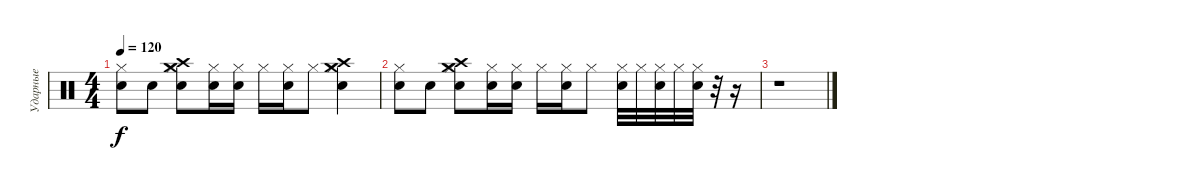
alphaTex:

\track ("Ударные" "Ударные") {instrument percussion}
\staff {score}
\articulation defaults
\ts (4 4)
\tempo 120
\clef neutral
\ks c
("Hi-Hat (closed)" "Electric Snare (hit)").8{dy f} "Electric Snare (hit)".8 ("Crash high (hit)" "Crash medium (hit)" "Electric Snare (hit)" "Hi-Hat (closed)").8 ("Hi-Hat (closed)" "Electric Snare (hit)").16 ("Hi-Hat (closed)" "Electric Snare (hit)").16 "Hi-Hat (closed)".16 ("Hi-Hat (closed)" "Electric Snare (hit)").16 "Hi-Hat (closed)".8 ("Crash high (hit)" "Crash medium (hit)" "Electric Snare (hit)" "Hi-Hat (closed)").4 |
("Hi-Hat (closed)" "Electric Snare (hit)").8 "Electric Snare (hit)".8 ("Crash high (hit)" "Crash medium (hit)" "Electric Snare (hit)" "Hi-Hat (closed)").8 ("Hi-Hat (closed)" "Electric Snare (hit)").16 ("Hi-Hat (closed)" "Electric Snare (hit)").16 "Hi-Hat (closed)".16 ("Hi-Hat (closed)" "Electric Snare (hit)").16 "Hi-Hat (closed)".8 ("Hi-Hat (closed)" "Electric Snare (hit)").32 "Hi-Hat (closed)".32 ("Hi-Hat (closed)" "Electric Snare (hit)").32 "Hi-Hat (closed)".32 ("Hi-Hat (closed)" "Electric Snare (hit)").32 r.32 r.16 |
r.1
